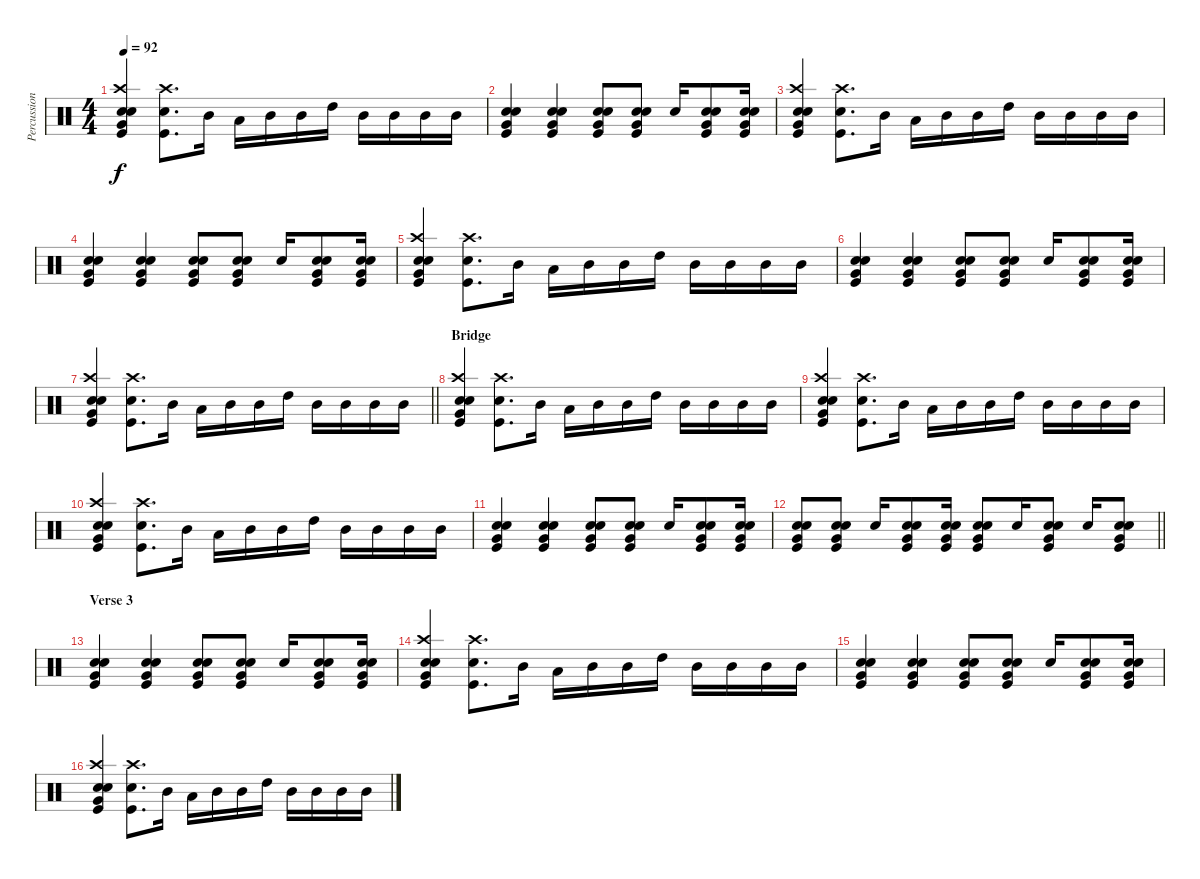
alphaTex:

\track ("Percussions" "Percussion") {instrument percussion}
\staff {score}
\articulation defaults
\ts (4 4)
\tempo 92
\clef neutral
\ks c
("Kick (hit)" "Snare (hit) 2" "Crash high (hit)" "Electric Snare (hit)" "Very Low Tom (hit)").4{dy f} ("Kick (hit)" "Snare (hit) 2" "Crash high (hit)").8{d} "Mid Tom (hit)".16 "Low Tom (hit)".16 "Mid Tom (hit)".16 "Mid Tom (hit)".16 "High Tom (hit)".16 "Mid Tom (hit)".16 "Mid Tom (hit)".16 "Mid Tom (hit)".16 "Mid Tom (hit)".16 |
("Kick (hit)" "Snare (hit) 2" "Electric Snare (hit)" "Very Low Tom (hit)").4 ("Kick (hit)" "Snare (hit) 2" "Electric Snare (hit)" "Very Low Tom (hit)").4 ("Kick (hit)" "Snare (hit) 2" "Electric Snare (hit)" "Very Low Tom (hit)").8 ("Kick (hit)" "Snare (hit) 2" "Electric Snare (hit)" "Very Low Tom (hit)").8 "Snare (hit) 2".16 ("Kick (hit)" "Snare (hit) 2" "Electric Snare (hit)" "Very Low Tom (hit)").8 ("Kick (hit)" "Snare (hit) 2" "Electric Snare (hit)" "Very Low Tom (hit)").16 |
("Kick (hit)" "Snare (hit) 2" "Crash high (hit)" "Electric Snare (hit)" "Very Low Tom (hit)").4 ("Kick (hit)" "Snare (hit) 2" "Crash high (hit)").8{d} "Mid Tom (hit)".16 "Low Tom (hit)".16 "Mid Tom (hit)".16 "Mid Tom (hit)".16 "High Tom (hit)".16 "Mid Tom (hit)".16 "Mid Tom (hit)".16 "Mid Tom (hit)".16 "Mid Tom (hit)".16 |
("Kick (hit)" "Snare (hit) 2" "Electric Snare (hit)" "Very Low Tom (hit)").4 ("Kick (hit)" "Snare (hit) 2" "Electric Snare (hit)" "Very Low Tom (hit)").4 ("Kick (hit)" "Snare (hit) 2" "Electric Snare (hit)" "Very Low Tom (hit)").8 ("Kick (hit)" "Snare (hit) 2" "Electric Snare (hit)" "Very Low Tom (hit)").8 "Snare (hit) 2".16 ("Kick (hit)" "Snare (hit) 2" "Electric Snare (hit)" "Very Low Tom (hit)").8 ("Kick (hit)" "Snare (hit) 2" "Electric Snare (hit)" "Very Low Tom (hit)").16 |
("Kick (hit)" "Snare (hit) 2" "Crash high (hit)" "Electric Snare (hit)" "Very Low Tom (hit)").4 ("Kick (hit)" "Snare (hit) 2" "Crash high (hit)").8{d} "Mid Tom (hit)".16 "Low Tom (hit)".16 "Mid Tom (hit)".16 "Mid Tom (hit)".16 "High Tom (hit)".16 "Mid Tom (hit)".16 "Mid Tom (hit)".16 "Mid Tom (hit)".16 "Mid Tom (hit)".16 |
("Kick (hit)" "Snare (hit) 2" "Electric Snare (hit)" "Very Low Tom (hit)").4 ("Kick (hit)" "Snare (hit) 2" "Electric Snare (hit)" "Very Low Tom (hit)").4 ("Kick (hit)" "Snare (hit) 2" "Electric Snare (hit)" "Very Low Tom (hit)").8 ("Kick (hit)" "Snare (hit) 2" "Electric Snare (hit)" "Very Low Tom (hit)").8 "Snare (hit) 2".16 ("Kick (hit)" "Snare (hit) 2" "Electric Snare (hit)" "Very Low Tom (hit)").8 ("Kick (hit)" "Snare (hit) 2" "Electric Snare (hit)" "Very Low Tom (hit)").16 |
\barLineRight lightlight
("Kick (hit)" "Snare (hit) 2" "Crash high (hit)" "Electric Snare (hit)" "Very Low Tom (hit)").4 ("Kick (hit)" "Snare (hit) 2" "Crash high (hit)").8{d} "Mid Tom (hit)".16 "Low Tom (hit)".16 "Mid Tom (hit)".16 "Mid Tom (hit)".16 "High Tom (hit)".16 "Mid Tom (hit)".16 "Mid Tom (hit)".16 "Mid Tom (hit)".16 "Mid Tom (hit)".16 |
\section ("" "Bridge")
("Kick (hit)" "Snare (hit) 2" "Crash high (hit)" "Electric Snare (hit)" "Very Low Tom (hit)").4 ("Kick (hit)" "Snare (hit) 2" "Crash high (hit)").8{d} "Mid Tom (hit)".16 "Low Tom (hit)".16 "Mid Tom (hit)".16 "Mid Tom (hit)".16 "High Tom (hit)".16 "Mid Tom (hit)".16 "Mid Tom (hit)".16 "Mid Tom (hit)".16 "Mid Tom (hit)".16 |
("Kick (hit)" "Snare (hit) 2" "Crash high (hit)" "Electric Snare (hit)" "Very Low Tom (hit)").4 ("Kick (hit)" "Snare (hit) 2" "Crash high (hit)").8{d} "Mid Tom (hit)".16 "Low Tom (hit)".16 "Mid Tom (hit)".16 "Mid Tom (hit)".16 "High Tom (hit)".16 "Mid Tom (hit)".16 "Mid Tom (hit)".16 "Mid Tom (hit)".16 "Mid Tom (hit)".16 |
("Kick (hit)" "Snare (hit) 2" "Crash high (hit)" "Electric Snare (hit)" "Very Low Tom (hit)").4 ("Kick (hit)" "Snare (hit) 2" "Crash high (hit)").8{d} "Mid Tom (hit)".16 "Low Tom (hit)".16 "Mid Tom (hit)".16 "Mid Tom (hit)".16 "High Tom (hit)".16 "Mid Tom (hit)".16 "Mid Tom (hit)".16 "Mid Tom (hit)".16 "Mid Tom (hit)".16 |
("Kick (hit)" "Snare (hit) 2" "Electric Snare (hit)" "Very Low Tom (hit)").4 ("Kick (hit)" "Snare (hit) 2" "Electric Snare (hit)" "Very Low Tom (hit)").4 ("Kick (hit)" "Snare (hit) 2" "Electric Snare (hit)" "Very Low Tom (hit)").8 ("Kick (hit)" "Snare (hit) 2" "Electric Snare (hit)" "Very Low Tom (hit)").8 "Snare (hit) 2".16 ("Kick (hit)" "Snare (hit) 2" "Electric Snare (hit)" "Very Low Tom (hit)").8 ("Kick (hit)" "Snare (hit) 2" "Electric Snare (hit)" "Very Low Tom (hit)").16 |
\barLineRight lightlight
("Kick (hit)" "Snare (hit) 2" "Electric Snare (hit)" "Very Low Tom (hit)").8 ("Kick (hit)" "Snare (hit) 2" "Electric Snare (hit)" "Very Low Tom (hit)").8 "Snare (hit) 2".16 ("Kick (hit)" "Snare (hit) 2" "Electric Snare (hit)" "Very Low Tom (hit)").8 ("Kick (hit)" "Snare (hit) 2" "Electric Snare (hit)" "Very Low Tom (hit)").16 ("Kick (hit)" "Snare (hit) 2" "Electric Snare (hit)" "Very Low Tom (hit)").8 "Snare (hit) 2".16 ("Kick (hit)" "Snare (hit) 2" "Electric Snare (hit)" "Very Low Tom (hit)").8 "Snare (hit) 2".16 ("Kick (hit)" "Snare (hit) 2" "Electric Snare (hit)" "Very Low Tom (hit)").8 |
\section ("" "Verse 3")
("Kick (hit)" "Snare (hit) 2" "Electric Snare (hit)" "Very Low Tom (hit)").4 ("Kick (hit)" "Snare (hit) 2" "Electric Snare (hit)" "Very Low Tom (hit)").4 ("Kick (hit)" "Snare (hit) 2" "Electric Snare (hit)" "Very Low Tom (hit)").8 ("Kick (hit)" "Snare (hit) 2" "Electric Snare (hit)" "Very Low Tom (hit)").8 "Snare (hit) 2".16 ("Kick (hit)" "Snare (hit) 2" "Electric Snare (hit)" "Very Low Tom (hit)").8 ("Kick (hit)" "Snare (hit) 2" "Electric Snare (hit)" "Very Low Tom (hit)").16 |
("Kick (hit)" "Snare (hit) 2" "Crash high (hit)" "Electric Snare (hit)" "Very Low Tom (hit)").4 ("Kick (hit)" "Snare (hit) 2" "Crash high (hit)").8{d} "Mid Tom (hit)".16 "Low Tom (hit)".16 "Mid Tom (hit)".16 "Mid Tom (hit)".16 "High Tom (hit)".16 "Mid Tom (hit)".16 "Mid Tom (hit)".16 "Mid Tom (hit)".16 "Mid Tom (hit)".16 |
("Kick (hit)" "Snare (hit) 2" "Electric Snare (hit)" "Very Low Tom (hit)").4 ("Kick (hit)" "Snare (hit) 2" "Electric Snare (hit)" "Very Low Tom (hit)").4 ("Kick (hit)" "Snare (hit) 2" "Electric Snare (hit)" "Very Low Tom (hit)").8 ("Kick (hit)" "Snare (hit) 2" "Electric Snare (hit)" "Very Low Tom (hit)").8 "Snare (hit) 2".16 ("Kick (hit)" "Snare (hit) 2" "Electric Snare (hit)" "Very Low Tom (hit)").8 ("Kick (hit)" "Snare (hit) 2" "Electric Snare (hit)" "Very Low Tom (hit)").16 |
("Kick (hit)" "Snare (hit) 2" "Crash high (hit)" "Electric Snare (hit)" "Very Low Tom (hit)").4 ("Kick (hit)" "Snare (hit) 2" "Crash high (hit)").8{d} "Mid Tom (hit)".16 "Low Tom (hit)".16 "Mid Tom (hit)".16 "Mid Tom (hit)".16 "High Tom (hit)".16 "Mid Tom (hit)".16 "Mid Tom (hit)".16 "Mid Tom (hit)".16 "Mid Tom (hit)".16
